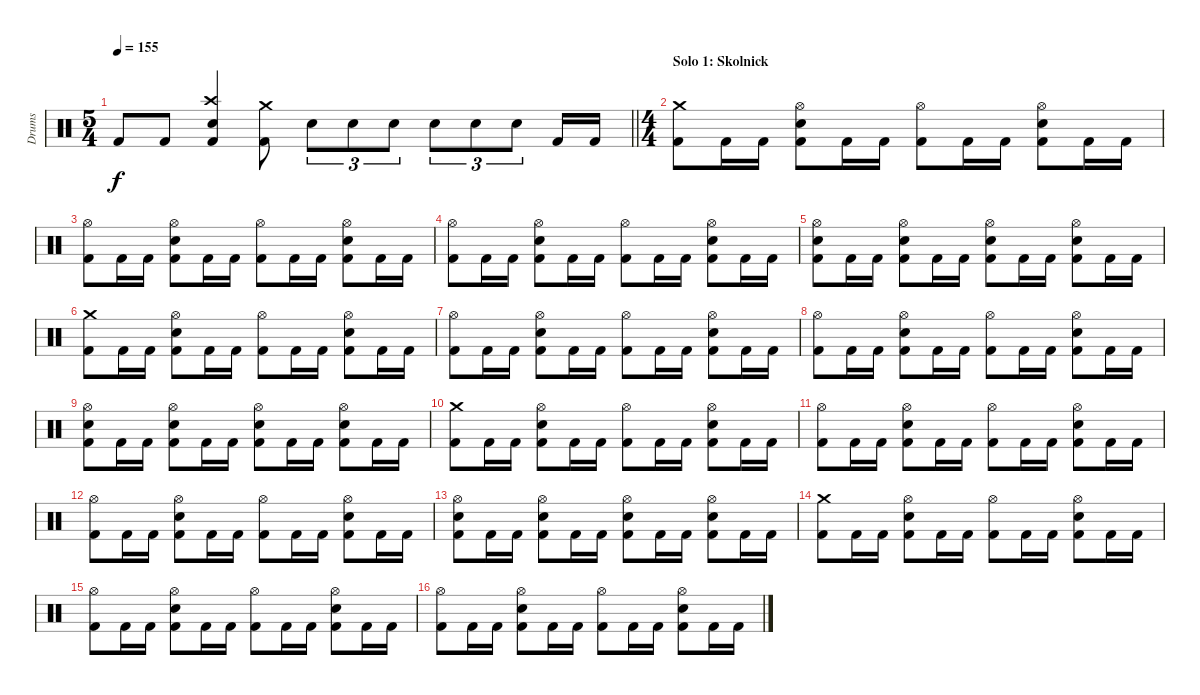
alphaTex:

\track ("Drums" "Drums") {instrument percussion}
\staff {score}
\articulation defaults
\ts (5 4)
\tempo 155
\clef neutral
\barLineRight lightlight
\ks c "Kick (hit) 2".8{dy f} "Kick (hit) 2".8
("Crash high (hit)" "Electric Snare (hit)" "Kick (hit) 2").4 ("Crash medium (hit)" "Kick (hit) 2").8 "Electric Snare (hit)".8{tu (3 2)} "Electric Snare (hit)".8{tu (3 2)} "Electric Snare (hit)".8{tu (3 2)} "Electric Snare (hit)".8{tu (3 2)} "Electric Snare (hit)".8{tu (3 2)} "Electric Snare (hit)".8{tu (3 2)} "Kick (hit) 2".16 "Kick (hit) 2".16 |
\ts (4 4)
\section ("" "Solo 1: Skolnick")
("Crash medium (hit)" "Kick (hit) 2").8 "Kick (hit) 2".16 "Kick (hit) 2".16 ("Hi-Hat (open)" "Electric Snare (hit)" "Kick (hit) 2").8 "Kick (hit) 2".16 "Kick (hit) 2".16 ("Hi-Hat (open)" "Kick (hit) 2").8 "Kick (hit) 2".16 "Kick (hit) 2".16 ("Hi-Hat (open)" "Electric Snare (hit)" "Kick (hit) 2").8 "Kick (hit) 2".16 "Kick (hit) 2".16 |
("Hi-Hat (open)" "Kick (hit) 2").8 "Kick (hit) 2".16 "Kick (hit) 2".16 ("Hi-Hat (open)" "Electric Snare (hit)" "Kick (hit) 2").8 "Kick (hit) 2".16 "Kick (hit) 2".16 ("Hi-Hat (open)" "Kick (hit) 2").8 "Kick (hit) 2".16 "Kick (hit) 2".16 ("Hi-Hat (open)" "Electric Snare (hit)" "Kick (hit) 2").8 "Kick (hit) 2".16 "Kick (hit) 2".16 |
("Hi-Hat (open)" "Kick (hit) 2").8 "Kick (hit) 2".16 "Kick (hit) 2".16 ("Hi-Hat (open)" "Electric Snare (hit)" "Kick (hit) 2").8 "Kick (hit) 2".16 "Kick (hit) 2".16 ("Hi-Hat (open)" "Kick (hit) 2").8 "Kick (hit) 2".16 "Kick (hit) 2".16 ("Hi-Hat (open)" "Electric Snare (hit)" "Kick (hit) 2").8 "Kick (hit) 2".16 "Kick (hit) 2".16 |
("Hi-Hat (open)" "Electric Snare (hit)" "Kick (hit) 2").8 "Kick (hit) 2".16 "Kick (hit) 2".16 ("Hi-Hat (open)" "Electric Snare (hit)" "Kick (hit) 2").8 "Kick (hit) 2".16 "Kick (hit) 2".16 ("Hi-Hat (open)" "Electric Snare (hit)" "Kick (hit) 2").8 "Kick (hit) 2".16 "Kick (hit) 2".16 ("Hi-Hat (open)" "Electric Snare (hit)" "Kick (hit) 2").8 "Kick (hit) 2".16 "Kick (hit) 2".16 |
("Crash medium (hit)" "Kick (hit) 2").8 "Kick (hit) 2".16 "Kick (hit) 2".16 ("Hi-Hat (open)" "Electric Snare (hit)" "Kick (hit) 2").8 "Kick (hit) 2".16 "Kick (hit) 2".16 ("Hi-Hat (open)" "Kick (hit) 2").8 "Kick (hit) 2".16 "Kick (hit) 2".16 ("Hi-Hat (open)" "Electric Snare (hit)" "Kick (hit) 2").8 "Kick (hit) 2".16 "Kick (hit) 2".16 |
("Hi-Hat (open)" "Kick (hit) 2").8 "Kick (hit) 2".16 "Kick (hit) 2".16 ("Hi-Hat (open)" "Electric Snare (hit)" "Kick (hit) 2").8 "Kick (hit) 2".16 "Kick (hit) 2".16 ("Hi-Hat (open)" "Kick (hit) 2").8 "Kick (hit) 2".16 "Kick (hit) 2".16 ("Hi-Hat (open)" "Electric Snare (hit)" "Kick (hit) 2").8 "Kick (hit) 2".16 "Kick (hit) 2".16 |
("Hi-Hat (open)" "Kick (hit) 2").8 "Kick (hit) 2".16 "Kick (hit) 2".16 ("Hi-Hat (open)" "Electric Snare (hit)" "Kick (hit) 2").8 "Kick (hit) 2".16 "Kick (hit) 2".16 ("Hi-Hat (open)" "Kick (hit) 2").8 "Kick (hit) 2".16 "Kick (hit) 2".16 ("Hi-Hat (open)" "Electric Snare (hit)" "Kick (hit) 2").8 "Kick (hit) 2".16 "Kick (hit) 2".16 |
("Hi-Hat (open)" "Electric Snare (hit)" "Kick (hit) 2").8 "Kick (hit) 2".16 "Kick (hit) 2".16 ("Hi-Hat (open)" "Electric Snare (hit)" "Kick (hit) 2").8 "Kick (hit) 2".16 "Kick (hit) 2".16 ("Hi-Hat (open)" "Electric Snare (hit)" "Kick (hit) 2").8 "Kick (hit) 2".16 "Kick (hit) 2".16 ("Hi-Hat (open)" "Electric Snare (hit)" "Kick (hit) 2").8 "Kick (hit) 2".16 "Kick (hit) 2".16 |
("Crash medium (hit)" "Kick (hit) 2").8 "Kick (hit) 2".16 "Kick (hit) 2".16 ("Hi-Hat (open)" "Electric Snare (hit)" "Kick (hit) 2").8 "Kick (hit) 2".16 "Kick (hit) 2".16 ("Hi-Hat (open)" "Kick (hit) 2").8 "Kick (hit) 2".16 "Kick (hit) 2".16 ("Hi-Hat (open)" "Electric Snare (hit)" "Kick (hit) 2").8 "Kick (hit) 2".16 "Kick (hit) 2".16 |
("Hi-Hat (open)" "Kick (hit) 2").8 "Kick (hit) 2".16 "Kick (hit) 2".16 ("Hi-Hat (open)" "Electric Snare (hit)" "Kick (hit) 2").8 "Kick (hit) 2".16 "Kick (hit) 2".16 ("Hi-Hat (open)" "Kick (hit) 2").8 "Kick (hit) 2".16 "Kick (hit) 2".16 ("Hi-Hat (open)" "Electric Snare (hit)" "Kick (hit) 2").8 "Kick (hit) 2".16 "Kick (hit) 2".16 |
("Hi-Hat (open)" "Kick (hit) 2").8 "Kick (hit) 2".16 "Kick (hit) 2".16 ("Hi-Hat (open)" "Electric Snare (hit)" "Kick (hit) 2").8 "Kick (hit) 2".16 "Kick (hit) 2".16 ("Hi-Hat (open)" "Kick (hit) 2").8 "Kick (hit) 2".16 "Kick (hit) 2".16 ("Hi-Hat (open)" "Electric Snare (hit)" "Kick (hit) 2").8 "Kick (hit) 2".16 "Kick (hit) 2".16 |
("Hi-Hat (open)" "Electric Snare (hit)" "Kick (hit) 2").8 "Kick (hit) 2".16 "Kick (hit) 2".16 ("Hi-Hat (open)" "Electric Snare (hit)" "Kick (hit) 2").8 "Kick (hit) 2".16 "Kick (hit) 2".16 ("Hi-Hat (open)" "Electric Snare (hit)" "Kick (hit) 2").8 "Kick (hit) 2".16 "Kick (hit) 2".16 ("Hi-Hat (open)" "Electric Snare (hit)" "Kick (hit) 2").8 "Kick (hit) 2".16 "Kick (hit) 2".16 |
("Crash medium (hit)" "Kick (hit) 2").8 "Kick (hit) 2".16 "Kick (hit) 2".16 ("Hi-Hat (open)" "Electric Snare (hit)" "Kick (hit) 2").8 "Kick (hit) 2".16 "Kick (hit) 2".16 ("Hi-Hat (open)" "Kick (hit) 2").8 "Kick (hit) 2".16 "Kick (hit) 2".16 ("Hi-Hat (open)" "Electric Snare (hit)" "Kick (hit) 2").8 "Kick (hit) 2".16 "Kick (hit) 2".16 |
("Hi-Hat (open)" "Kick (hit) 2").8 "Kick (hit) 2".16 "Kick (hit) 2".16 ("Hi-Hat (open)" "Electric Snare (hit)" "Kick (hit) 2").8 "Kick (hit) 2".16 "Kick (hit) 2".16 ("Hi-Hat (open)" "Kick (hit) 2").8 "Kick (hit) 2".16 "Kick (hit) 2".16 ("Hi-Hat (open)" "Electric Snare (hit)" "Kick (hit) 2").8 "Kick (hit) 2".16 "Kick (hit) 2".16 |
("Hi-Hat (open)" "Kick (hit) 2").8 "Kick (hit) 2".16 "Kick (hit) 2".16 ("Hi-Hat (open)" "Electric Snare (hit)" "Kick (hit) 2").8 "Kick (hit) 2".16 "Kick (hit) 2".16 ("Hi-Hat (open)" "Kick (hit) 2").8 "Kick (hit) 2".16 "Kick (hit) 2".16 ("Hi-Hat (open)" "Electric Snare (hit)" "Kick (hit) 2").8 "Kick (hit) 2".16 "Kick (hit) 2".16
